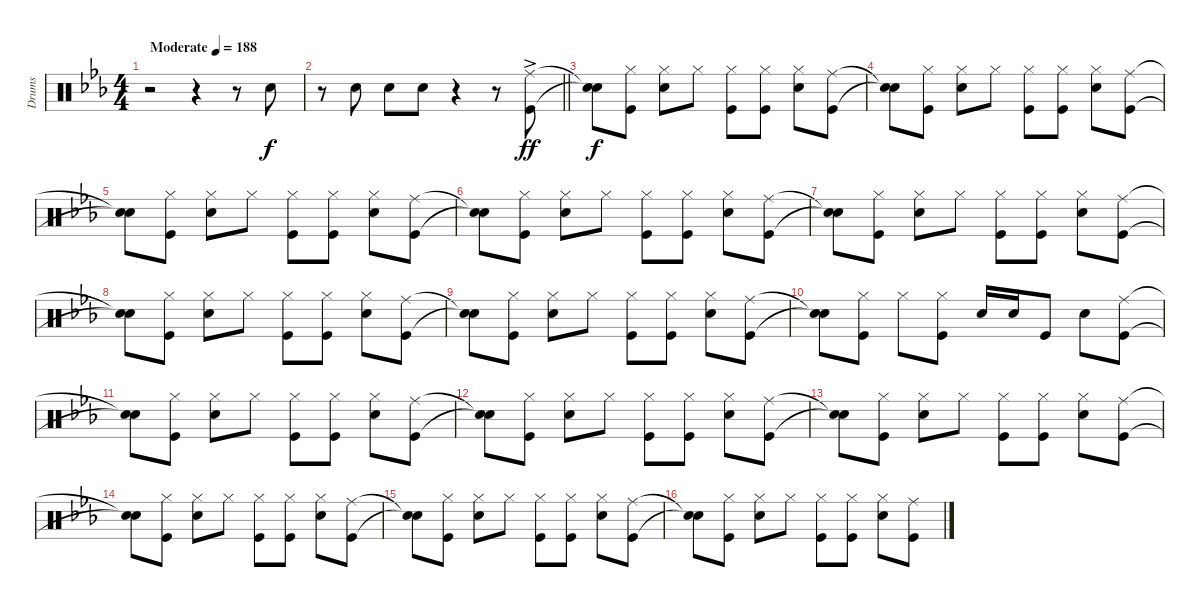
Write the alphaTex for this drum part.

\track ("Drums" "Drums") {instrument percussion}
\staff {score}
\articulation defaults
\ts (4 4)
\tempo (188 "Moderate")
\clef neutral
\ks eb
r.2{dy f} r.4 r.8 "Snare (hit) 2".8 |
\barLineRight lightlight
r.8 "Snare (hit) 2".8 "Snare (hit) 2".8 "Snare (hit) 2".8 r.4 r.8 ("Ride (middle)"{ac} "Kick (hit)").8{dy ff} |
("Snare (hit)"{t} "Snare (hit)"{t}).8{dy f} ("Hi-Hat (closed)" "Kick (hit)").8 ("Hi-Hat (closed)" "Snare (hit) 2").8 "Hi-Hat (closed)".8 ("Hi-Hat (closed)" "Kick (hit)").8 ("Hi-Hat (closed)" "Kick (hit)").8 ("Hi-Hat (closed)" "Snare (hit) 2").8 ("Ride (middle)" "Kick (hit)").8 |
("Snare (hit)"{t} "Snare (hit)"{t}).8 ("Hi-Hat (closed)" "Kick (hit)").8 ("Hi-Hat (closed)" "Snare (hit) 2").8 "Hi-Hat (closed)".8 ("Hi-Hat (closed)" "Kick (hit)").8 ("Hi-Hat (closed)" "Kick (hit)").8 ("Hi-Hat (closed)" "Snare (hit) 2").8 ("Ride (middle)" "Kick (hit)").8 |
("Snare (hit)"{t} "Snare (hit)"{t}).8 ("Hi-Hat (closed)" "Kick (hit)").8 ("Hi-Hat (closed)" "Snare (hit) 2").8 "Hi-Hat (closed)".8 ("Hi-Hat (closed)" "Kick (hit)").8 ("Hi-Hat (closed)" "Kick (hit)").8 ("Hi-Hat (closed)" "Snare (hit) 2").8 ("Ride (middle)" "Kick (hit)").8 |
("Snare (hit)"{t} "Snare (hit)"{t}).8 ("Hi-Hat (closed)" "Kick (hit)").8 ("Hi-Hat (closed)" "Snare (hit) 2").8 "Hi-Hat (closed)".8 ("Hi-Hat (closed)" "Kick (hit)").8 ("Hi-Hat (closed)" "Kick (hit)").8 ("Hi-Hat (closed)" "Snare (hit) 2").8 ("Ride (middle)" "Kick (hit)").8 |
("Snare (hit)"{t} "Snare (hit)"{t}).8 ("Hi-Hat (closed)" "Kick (hit)").8 ("Hi-Hat (closed)" "Snare (hit) 2").8 "Hi-Hat (closed)".8 ("Hi-Hat (closed)" "Kick (hit)").8 ("Hi-Hat (closed)" "Kick (hit)").8 ("Hi-Hat (closed)" "Snare (hit) 2").8 ("Ride (middle)" "Kick (hit)").8 |
("Snare (hit)"{t} "Snare (hit)"{t}).8 ("Hi-Hat (closed)" "Kick (hit)").8 ("Hi-Hat (closed)" "Snare (hit) 2").8 "Hi-Hat (closed)".8 ("Hi-Hat (closed)" "Kick (hit)").8 ("Hi-Hat (closed)" "Kick (hit)").8 ("Hi-Hat (closed)" "Snare (hit) 2").8 ("Ride (middle)" "Kick (hit)").8 |
("Snare (hit)"{t} "Snare (hit)"{t}).8 ("Hi-Hat (closed)" "Kick (hit)").8 ("Hi-Hat (closed)" "Snare (hit) 2").8 "Hi-Hat (closed)".8 ("Hi-Hat (closed)" "Kick (hit)").8 ("Hi-Hat (closed)" "Kick (hit)").8 ("Hi-Hat (closed)" "Snare (hit) 2").8 ("Ride (middle)" "Kick (hit)").8 |
("Snare (hit)"{t} "Snare (hit)"{t}).8 ("Hi-Hat (closed)" "Kick (hit)").8 "Hi-Hat (closed)".8 ("Hi-Hat (closed)" "Kick (hit)").8 "Snare (hit) 2".16 "Snare (hit) 2".16 "Kick (hit)".8 "Snare (hit) 2".8 ("Ride (middle)" "Kick (hit)").8 |
("Snare (hit)"{t} "Snare (hit)"{t}).8 ("Hi-Hat (closed)" "Kick (hit)").8 ("Hi-Hat (closed)" "Snare (hit) 2").8 "Hi-Hat (closed)".8 ("Hi-Hat (closed)" "Kick (hit)").8 ("Hi-Hat (closed)" "Kick (hit)").8 ("Hi-Hat (closed)" "Snare (hit) 2").8 ("Ride (middle)" "Kick (hit)").8 |
("Snare (hit)"{t} "Snare (hit)"{t}).8 ("Hi-Hat (closed)" "Kick (hit)").8 ("Hi-Hat (closed)" "Snare (hit) 2").8 "Hi-Hat (closed)".8 ("Hi-Hat (closed)" "Kick (hit)").8 ("Hi-Hat (closed)" "Kick (hit)").8 ("Hi-Hat (closed)" "Snare (hit) 2").8 ("Ride (middle)" "Kick (hit)").8 |
("Snare (hit)"{t} "Snare (hit)"{t}).8 ("Hi-Hat (closed)" "Kick (hit)").8 ("Hi-Hat (closed)" "Snare (hit) 2").8 "Hi-Hat (closed)".8 ("Hi-Hat (closed)" "Kick (hit)").8 ("Hi-Hat (closed)" "Kick (hit)").8 ("Hi-Hat (closed)" "Snare (hit) 2").8 ("Ride (middle)" "Kick (hit)").8 |
("Snare (hit)"{t} "Snare (hit)"{t}).8 ("Hi-Hat (closed)" "Kick (hit)").8 ("Hi-Hat (closed)" "Snare (hit) 2").8 "Hi-Hat (closed)".8 ("Hi-Hat (closed)" "Kick (hit)").8 ("Hi-Hat (closed)" "Kick (hit)").8 ("Hi-Hat (closed)" "Snare (hit) 2").8 ("Ride (middle)" "Kick (hit)").8 |
("Snare (hit)"{t} "Snare (hit)"{t}).8 ("Hi-Hat (closed)" "Kick (hit)").8 ("Hi-Hat (closed)" "Snare (hit) 2").8 "Hi-Hat (closed)".8 ("Hi-Hat (closed)" "Kick (hit)").8 ("Hi-Hat (closed)" "Kick (hit)").8 ("Hi-Hat (closed)" "Snare (hit) 2").8 ("Ride (middle)" "Kick (hit)").8 |
("Snare (hit)"{t} "Snare (hit)"{t}).8 ("Hi-Hat (closed)" "Kick (hit)").8 ("Hi-Hat (closed)" "Snare (hit) 2").8 "Hi-Hat (closed)".8 ("Hi-Hat (closed)" "Kick (hit)").8 ("Hi-Hat (closed)" "Kick (hit)").8 ("Hi-Hat (closed)" "Snare (hit) 2").8 ("Ride (middle)" "Kick (hit)").8
